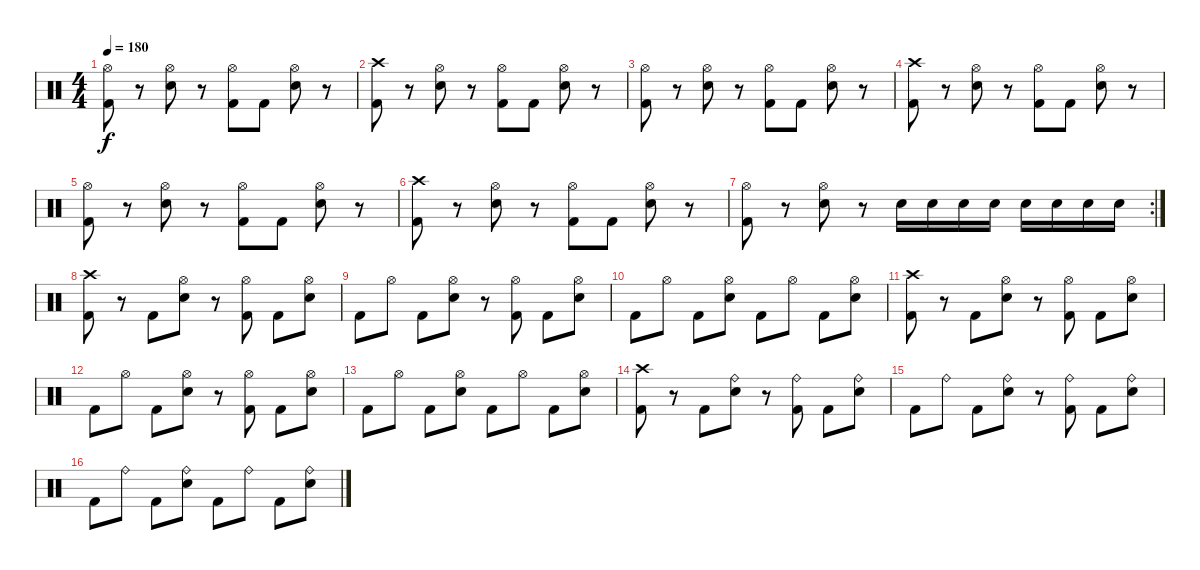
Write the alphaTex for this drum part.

\track "" {instrument percussion}
\staff {score}
\articulation defaults
\ts (4 4)
\tempo 180
\clef neutral
\ks c
("Hi-Hat (open)" "Kick (hit) 2").8{dy f} r.8 ("Hi-Hat (open)" "Electric Snare (hit)").8 r.8 ("Hi-Hat (open)" "Kick (hit) 2").8 "Kick (hit) 2".8 ("Hi-Hat (open)" "Electric Snare (hit)").8 r.8 |
("Crash high (hit)" "Kick (hit) 2").8 r.8 ("Hi-Hat (open)" "Electric Snare (hit)").8 r.8 ("Hi-Hat (open)" "Kick (hit) 2").8 "Kick (hit) 2".8 ("Hi-Hat (open)" "Electric Snare (hit)").8 r.8 |
("Hi-Hat (open)" "Kick (hit) 2").8 r.8 ("Hi-Hat (open)" "Electric Snare (hit)").8 r.8 ("Hi-Hat (open)" "Kick (hit) 2").8 "Kick (hit) 2".8 ("Hi-Hat (open)" "Electric Snare (hit)").8 r.8 |
("Crash high (hit)" "Kick (hit) 2").8 r.8 ("Hi-Hat (open)" "Electric Snare (hit)").8 r.8 ("Hi-Hat (open)" "Kick (hit) 2").8 "Kick (hit) 2".8 ("Hi-Hat (open)" "Electric Snare (hit)").8 r.8 |
("Hi-Hat (open)" "Kick (hit) 2").8 r.8 ("Hi-Hat (open)" "Electric Snare (hit)").8 r.8 ("Hi-Hat (open)" "Kick (hit) 2").8 "Kick (hit) 2".8 ("Hi-Hat (open)" "Electric Snare (hit)").8 r.8 |
("Crash high (hit)" "Kick (hit) 2").8 r.8 ("Hi-Hat (open)" "Electric Snare (hit)").8 r.8 ("Hi-Hat (open)" "Kick (hit) 2").8 "Kick (hit) 2".8 ("Hi-Hat (open)" "Electric Snare (hit)").8 r.8 |
\rc 2
("Hi-Hat (open)" "Kick (hit) 2").8 r.8 ("Hi-Hat (open)" "Electric Snare (hit)").8 r.8 "Electric Snare (hit)".16 "Electric Snare (hit)".16 "Electric Snare (hit)".16 "Electric Snare (hit)".16 "Electric Snare (hit)".16 "Electric Snare (hit)".16 "Electric Snare (hit)".16 "Electric Snare (hit)".16 |
("Crash high (hit)" "Kick (hit) 2").8 r.8 "Kick (hit) 2".8 ("Hi-Hat (open)" "Electric Snare (hit)").8 r.8 ("Hi-Hat (open)" "Kick (hit) 2").8 "Kick (hit) 2".8 ("Hi-Hat (open)" "Electric Snare (hit)").8 |
"Kick (hit) 2".8 "Hi-Hat (open)".8 "Kick (hit) 2".8 ("Hi-Hat (open)" "Electric Snare (hit)").8 r.8 ("Hi-Hat (open)" "Kick (hit) 2").8 "Kick (hit) 2".8 ("Hi-Hat (open)" "Electric Snare (hit)").8 |
"Kick (hit) 2".8 "Hi-Hat (open)".8 "Kick (hit) 2".8 ("Hi-Hat (open)" "Electric Snare (hit)").8 "Kick (hit) 2".8 "Hi-Hat (open)".8 "Kick (hit) 2".8 ("Hi-Hat (open)" "Electric Snare (hit)").8 |
("Crash high (hit)" "Kick (hit) 2").8 r.8 "Kick (hit) 2".8 ("Hi-Hat (open)" "Electric Snare (hit)").8 r.8 ("Hi-Hat (open)" "Kick (hit) 2").8 "Kick (hit) 2".8 ("Hi-Hat (open)" "Electric Snare (hit)").8 |
"Kick (hit) 2".8 "Hi-Hat (open)".8 "Kick (hit) 2".8 ("Hi-Hat (open)" "Electric Snare (hit)").8 r.8 ("Hi-Hat (open)" "Kick (hit) 2").8 "Kick (hit) 2".8 ("Hi-Hat (open)" "Electric Snare (hit)").8 |
"Kick (hit) 2".8 "Hi-Hat (open)".8 "Kick (hit) 2".8 ("Hi-Hat (open)" "Electric Snare (hit)").8 "Kick (hit) 2".8 "Hi-Hat (open)".8 "Kick (hit) 2".8 ("Hi-Hat (open)" "Electric Snare (hit)").8 |
("Crash high (hit)" "Kick (hit) 2").8 r.8 "Kick (hit) 2".8 ("Ride (bell)" "Electric Snare (hit)").8 r.8 ("Ride (bell)" "Kick (hit) 2").8 "Kick (hit) 2".8 ("Ride (bell)" "Electric Snare (hit)").8 |
"Kick (hit) 2".8 "Ride (bell)".8 "Kick (hit) 2".8 ("Ride (bell)" "Electric Snare (hit)").8 r.8 ("Ride (bell)" "Kick (hit) 2").8 "Kick (hit) 2".8 ("Ride (bell)" "Electric Snare (hit)").8 |
"Kick (hit) 2".8 "Ride (bell)".8 "Kick (hit) 2".8 ("Ride (bell)" "Electric Snare (hit)").8 "Kick (hit) 2".8 "Ride (bell)".8 "Kick (hit) 2".8 ("Ride (bell)" "Electric Snare (hit)").8
